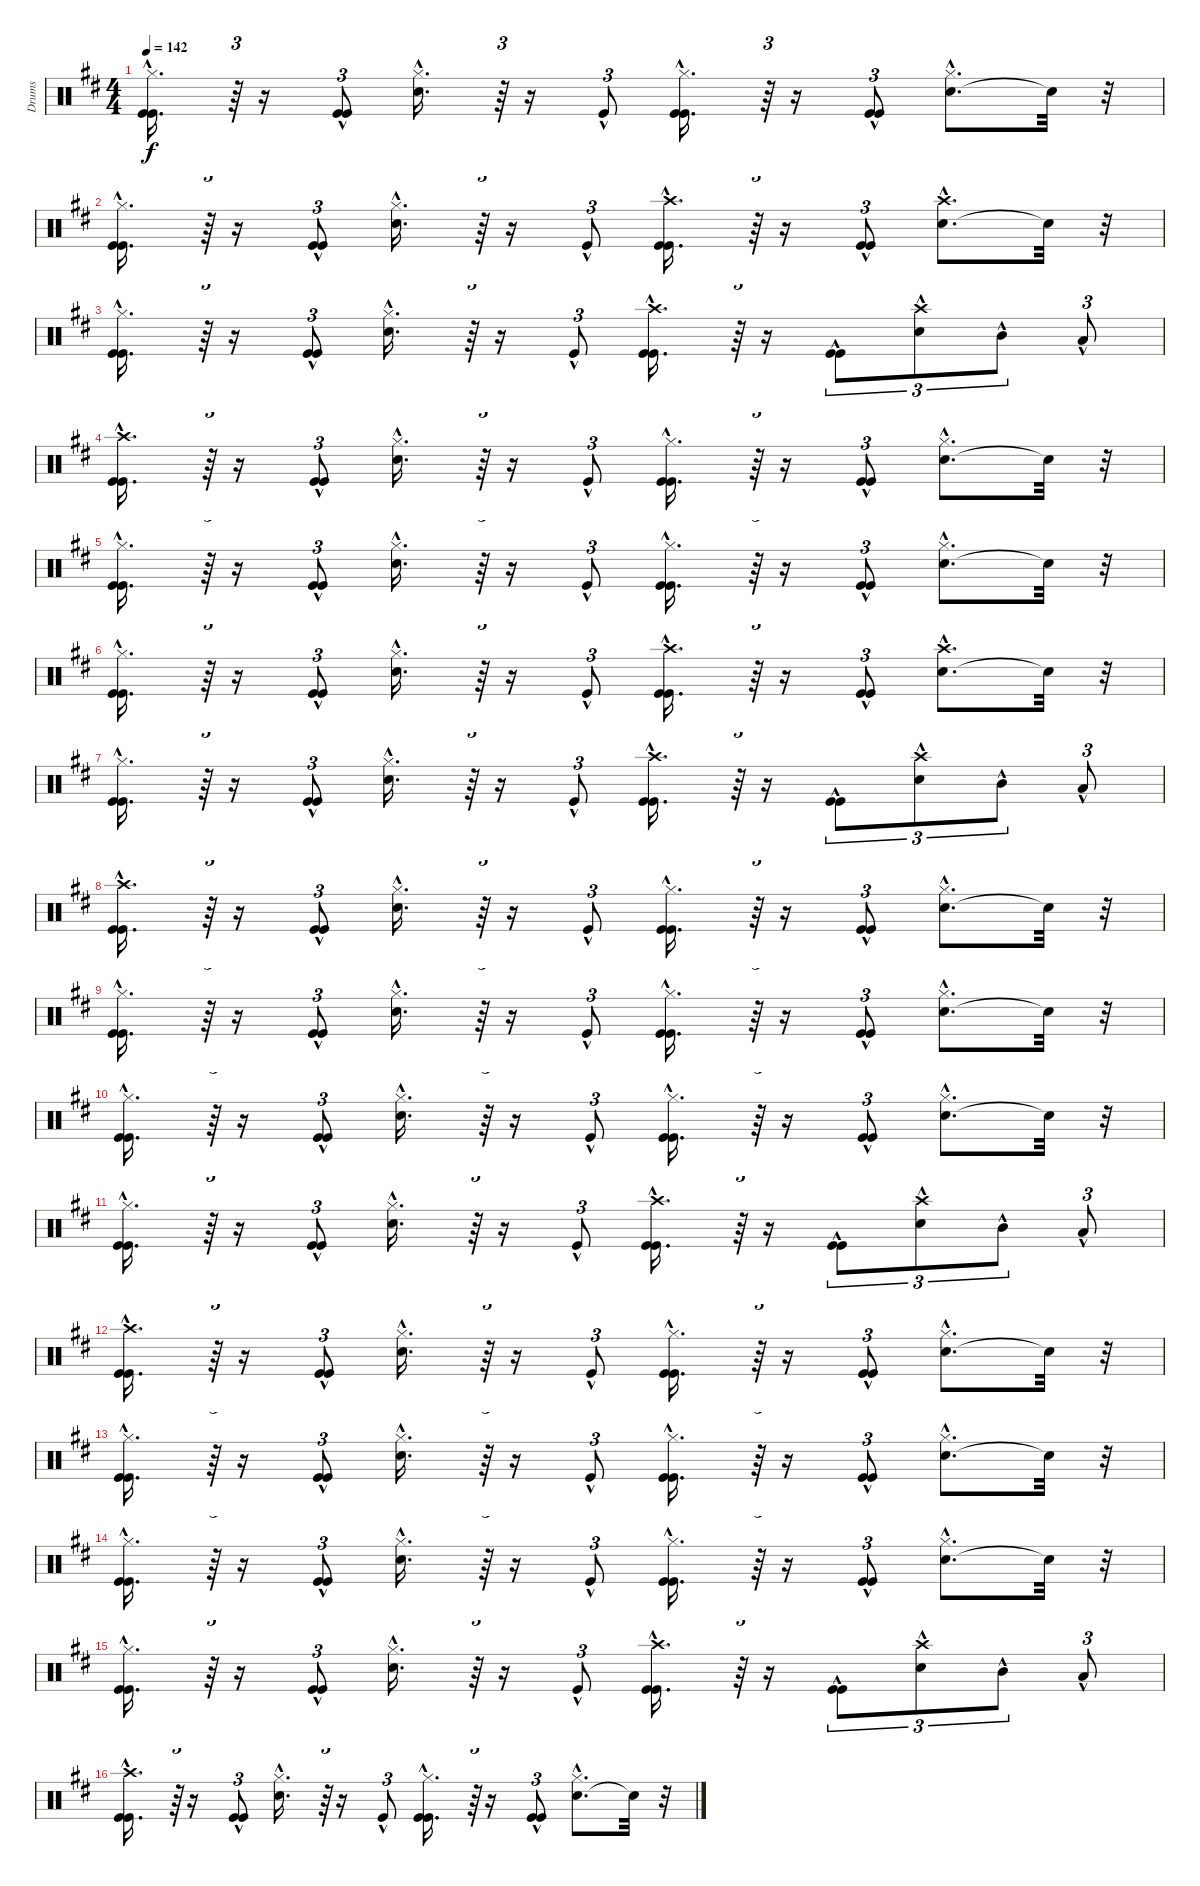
\track ("Drums" "Drums") {instrument percussion}
\staff {score}
\articulation defaults
\ts (4 4)
\tempo 142
\clef neutral
\ks bminor
("Kick (hit)"{hac} "Kick (hit)"{hac} "Hi-Hat (closed)"{hac}).16{d dy f} r.64{tu (3 2)} r.16 ("Kick (hit)"{hac} "Kick (hit)"{hac}).8{tu (3 2)} ("Snare (hit) 2"{hac} "Hi-Hat (closed)"{hac}).16{d} r.64{tu (3 2)} r.16 "Kick (hit)"{hac}.8{tu (3 2)} ("Kick (hit)"{hac} "Kick (hit)"{hac} "Hi-Hat (closed)"{hac}).16{d} r.64{tu (3 2)} r.16 ("Kick (hit)"{hac} "Kick (hit)"{hac}).8{tu (3 2)} ("Snare (hit) 2"{hac} "Hi-Hat (closed)"{hac}).8{d} "Snare (hit)"{t}.32 r.32 |
("Kick (hit)"{hac} "Kick (hit)"{hac} "Hi-Hat (closed)"{hac}).16{d} r.64{tu (3 2)} r.16 ("Kick (hit)"{hac} "Kick (hit)"{hac}).8{tu (3 2)} ("Snare (hit) 2"{hac} "Hi-Hat (closed)"{hac}).16{d} r.64{tu (3 2)} r.16 "Kick (hit)"{hac}.8{tu (3 2)} ("Kick (hit)"{hac} "Kick (hit)"{hac} "Crash high (hit)"{hac}).16{d} r.64{tu (3 2)} r.16 ("Kick (hit)"{hac} "Kick (hit)"{hac}).8{tu (3 2)} ("Snare (hit) 2"{hac} "Crash high (hit)"{hac}).8{d} "Snare (hit)"{t}.32 r.32 |
("Kick (hit)"{hac} "Kick (hit)"{hac} "Hi-Hat (closed)"{hac}).16{d} r.64{tu (3 2)} r.16 ("Kick (hit)"{hac} "Kick (hit)"{hac}).8{tu (3 2)} ("Snare (hit) 2"{hac} "Hi-Hat (closed)"{hac}).16{d} r.64{tu (3 2)} r.16 "Kick (hit)"{hac}.8{tu (3 2)} ("Kick (hit)"{hac} "Kick (hit)"{hac} "Crash high (hit)"{hac}).16{d} r.64{tu (3 2)} r.16 ("Kick (hit)"{hac} "Kick (hit)"{hac}).8{tu (3 2)} ("Snare (hit) 2"{hac} "Crash high (hit)"{hac}).8{tu (3 2)} "Mid Tom (hit)"{hac}.8{tu (3 2)} "Low Tom (hit)"{hac}.8{tu (3 2)} |
("Kick (hit)"{hac} "Kick (hit)"{hac} "Crash high (hit)"{hac}).16{d} r.64{tu (3 2)} r.16 ("Kick (hit)"{hac} "Kick (hit)"{hac}).8{tu (3 2)} ("Snare (hit) 2"{hac} "Hi-Hat (closed)"{hac}).16{d} r.64{tu (3 2)} r.16 "Kick (hit)"{hac}.8{tu (3 2)} ("Kick (hit)"{hac} "Kick (hit)"{hac} "Hi-Hat (closed)"{hac}).16{d} r.64{tu (3 2)} r.16 ("Kick (hit)"{hac} "Kick (hit)"{hac}).8{tu (3 2)} ("Snare (hit) 2"{hac} "Hi-Hat (closed)"{hac}).8{d} "Snare (hit)"{t}.32 r.32 |
("Kick (hit)"{hac} "Kick (hit)"{hac} "Hi-Hat (closed)"{hac}).16{d} r.64{tu (3 2)} r.16 ("Kick (hit)"{hac} "Kick (hit)"{hac}).8{tu (3 2)} ("Snare (hit) 2"{hac} "Hi-Hat (closed)"{hac}).16{d} r.64{tu (3 2)} r.16 "Kick (hit)"{hac}.8{tu (3 2)} ("Kick (hit)"{hac} "Kick (hit)"{hac} "Hi-Hat (closed)"{hac}).16{d} r.64{tu (3 2)} r.16 ("Kick (hit)"{hac} "Kick (hit)"{hac}).8{tu (3 2)} ("Snare (hit) 2"{hac} "Hi-Hat (closed)"{hac}).8{d} "Snare (hit)"{t}.32 r.32 |
("Kick (hit)"{hac} "Kick (hit)"{hac} "Hi-Hat (closed)"{hac}).16{d} r.64{tu (3 2)} r.16 ("Kick (hit)"{hac} "Kick (hit)"{hac}).8{tu (3 2)} ("Snare (hit) 2"{hac} "Hi-Hat (closed)"{hac}).16{d} r.64{tu (3 2)} r.16 "Kick (hit)"{hac}.8{tu (3 2)} ("Kick (hit)"{hac} "Kick (hit)"{hac} "Crash high (hit)"{hac}).16{d} r.64{tu (3 2)} r.16 ("Kick (hit)"{hac} "Kick (hit)"{hac}).8{tu (3 2)} ("Snare (hit) 2"{hac} "Crash high (hit)"{hac}).8{d} "Snare (hit)"{t}.32 r.32 |
("Kick (hit)"{hac} "Kick (hit)"{hac} "Hi-Hat (closed)"{hac}).16{d} r.64{tu (3 2)} r.16 ("Kick (hit)"{hac} "Kick (hit)"{hac}).8{tu (3 2)} ("Snare (hit) 2"{hac} "Hi-Hat (closed)"{hac}).16{d} r.64{tu (3 2)} r.16 "Kick (hit)"{hac}.8{tu (3 2)} ("Kick (hit)"{hac} "Kick (hit)"{hac} "Crash high (hit)"{hac}).16{d} r.64{tu (3 2)} r.16 ("Kick (hit)"{hac} "Kick (hit)"{hac}).8{tu (3 2)} ("Snare (hit) 2"{hac} "Crash high (hit)"{hac}).8{tu (3 2)} "Mid Tom (hit)"{hac}.8{tu (3 2)} "Low Tom (hit)"{hac}.8{tu (3 2)} |
("Kick (hit)"{hac} "Kick (hit)"{hac} "Crash high (hit)"{hac}).16{d} r.64{tu (3 2)} r.16 ("Kick (hit)"{hac} "Kick (hit)"{hac}).8{tu (3 2)} ("Snare (hit) 2"{hac} "Hi-Hat (closed)"{hac}).16{d} r.64{tu (3 2)} r.16 "Kick (hit)"{hac}.8{tu (3 2)} ("Kick (hit)"{hac} "Kick (hit)"{hac} "Hi-Hat (closed)"{hac}).16{d} r.64{tu (3 2)} r.16 ("Kick (hit)"{hac} "Kick (hit)"{hac}).8{tu (3 2)} ("Snare (hit) 2"{hac} "Hi-Hat (closed)"{hac}).8{d} "Snare (hit)"{t}.32 r.32 |
("Kick (hit)"{hac} "Kick (hit)"{hac} "Hi-Hat (closed)"{hac}).16{d} r.64{tu (3 2)} r.16 ("Kick (hit)"{hac} "Kick (hit)"{hac}).8{tu (3 2)} ("Snare (hit) 2"{hac} "Hi-Hat (closed)"{hac}).16{d} r.64{tu (3 2)} r.16 "Kick (hit)"{hac}.8{tu (3 2)} ("Kick (hit)"{hac} "Kick (hit)"{hac} "Hi-Hat (closed)"{hac}).16{d} r.64{tu (3 2)} r.16 ("Kick (hit)"{hac} "Kick (hit)"{hac}).8{tu (3 2)} ("Snare (hit) 2"{hac} "Hi-Hat (closed)"{hac}).8{d} "Snare (hit)"{t}.32 r.32 |
("Kick (hit)"{hac} "Kick (hit)"{hac} "Hi-Hat (closed)"{hac}).16{d} r.64{tu (3 2)} r.16 ("Kick (hit)"{hac} "Kick (hit)"{hac}).8{tu (3 2)} ("Snare (hit) 2"{hac} "Hi-Hat (closed)"{hac}).16{d} r.64{tu (3 2)} r.16 "Kick (hit)"{hac}.8{tu (3 2)} ("Kick (hit)"{hac} "Kick (hit)"{hac} "Hi-Hat (closed)"{hac}).16{d} r.64{tu (3 2)} r.16 ("Kick (hit)"{hac} "Kick (hit)"{hac}).8{tu (3 2)} ("Snare (hit) 2"{hac} "Hi-Hat (closed)"{hac}).8{d} "Snare (hit)"{t}.32 r.32 |
("Kick (hit)"{hac} "Kick (hit)"{hac} "Hi-Hat (closed)"{hac}).16{d} r.64{tu (3 2)} r.16 ("Kick (hit)"{hac} "Kick (hit)"{hac}).8{tu (3 2)} ("Snare (hit) 2"{hac} "Hi-Hat (closed)"{hac}).16{d} r.64{tu (3 2)} r.16 "Kick (hit)"{hac}.8{tu (3 2)} ("Kick (hit)"{hac} "Kick (hit)"{hac} "Crash high (hit)"{hac}).16{d} r.64{tu (3 2)} r.16 ("Kick (hit)"{hac} "Kick (hit)"{hac}).8{tu (3 2)} ("Snare (hit) 2"{hac} "Crash high (hit)"{hac}).8{tu (3 2)} "Mid Tom (hit)"{hac}.8{tu (3 2)} "Low Tom (hit)"{hac}.8{tu (3 2)} |
("Kick (hit)"{hac} "Kick (hit)"{hac} "Crash high (hit)"{hac}).16{d} r.64{tu (3 2)} r.16 ("Kick (hit)"{hac} "Kick (hit)"{hac}).8{tu (3 2)} ("Snare (hit) 2"{hac} "Hi-Hat (closed)"{hac}).16{d} r.64{tu (3 2)} r.16 "Kick (hit)"{hac}.8{tu (3 2)} ("Kick (hit)"{hac} "Kick (hit)"{hac} "Hi-Hat (closed)"{hac}).16{d} r.64{tu (3 2)} r.16 ("Kick (hit)"{hac} "Kick (hit)"{hac}).8{tu (3 2)} ("Snare (hit) 2"{hac} "Hi-Hat (closed)"{hac}).8{d} "Snare (hit)"{t}.32 r.32 |
("Kick (hit)"{hac} "Kick (hit)"{hac} "Hi-Hat (closed)"{hac}).16{d} r.64{tu (3 2)} r.16 ("Kick (hit)"{hac} "Kick (hit)"{hac}).8{tu (3 2)} ("Snare (hit) 2"{hac} "Hi-Hat (closed)"{hac}).16{d} r.64{tu (3 2)} r.16 "Kick (hit)"{hac}.8{tu (3 2)} ("Kick (hit)"{hac} "Kick (hit)"{hac} "Hi-Hat (closed)"{hac}).16{d} r.64{tu (3 2)} r.16 ("Kick (hit)"{hac} "Kick (hit)"{hac}).8{tu (3 2)} ("Snare (hit) 2"{hac} "Hi-Hat (closed)"{hac}).8{d} "Snare (hit)"{t}.32 r.32 |
("Kick (hit)"{hac} "Kick (hit)"{hac} "Hi-Hat (closed)"{hac}).16{d} r.64{tu (3 2)} r.16 ("Kick (hit)"{hac} "Kick (hit)"{hac}).8{tu (3 2)} ("Snare (hit) 2"{hac} "Hi-Hat (closed)"{hac}).16{d} r.64{tu (3 2)} r.16 "Kick (hit)"{hac}.8{tu (3 2)} ("Kick (hit)"{hac} "Kick (hit)"{hac} "Hi-Hat (closed)"{hac}).16{d} r.64{tu (3 2)} r.16 ("Kick (hit)"{hac} "Kick (hit)"{hac}).8{tu (3 2)} ("Snare (hit) 2"{hac} "Hi-Hat (closed)"{hac}).8{d} "Snare (hit)"{t}.32 r.32 |
("Kick (hit)"{hac} "Kick (hit)"{hac} "Hi-Hat (closed)"{hac}).16{d} r.64{tu (3 2)} r.16 ("Kick (hit)"{hac} "Kick (hit)"{hac}).8{tu (3 2)} ("Snare (hit) 2"{hac} "Hi-Hat (closed)"{hac}).16{d} r.64{tu (3 2)} r.16 "Kick (hit)"{hac}.8{tu (3 2)} ("Kick (hit)"{hac} "Kick (hit)"{hac} "Crash high (hit)"{hac}).16{d} r.64{tu (3 2)} r.16 ("Kick (hit)"{hac} "Kick (hit)"{hac}).8{tu (3 2)} ("Snare (hit) 2"{hac} "Crash high (hit)"{hac}).8{tu (3 2)} "Mid Tom (hit)"{hac}.8{tu (3 2)} "Low Tom (hit)"{hac}.8{tu (3 2)} |
("Kick (hit)"{hac} "Kick (hit)"{hac} "Crash high (hit)"{hac}).16{d} r.64{tu (3 2)} r.16 ("Kick (hit)"{hac} "Kick (hit)"{hac}).8{tu (3 2)} ("Snare (hit) 2"{hac} "Hi-Hat (closed)"{hac}).16{d} r.64{tu (3 2)} r.16 "Kick (hit)"{hac}.8{tu (3 2)} ("Kick (hit)"{hac} "Kick (hit)"{hac} "Hi-Hat (closed)"{hac}).16{d} r.64{tu (3 2)} r.16 ("Kick (hit)"{hac} "Kick (hit)"{hac}).8{tu (3 2)} ("Snare (hit) 2"{hac} "Hi-Hat (closed)"{hac}).8{d} "Snare (hit)"{t}.32 r.32
